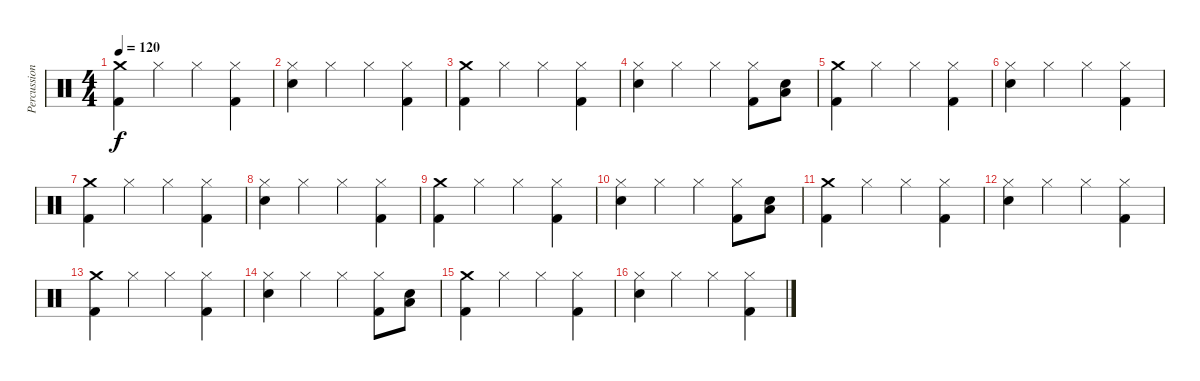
\track ("Percussion" "Percussion") {instrument percussion}
\staff {score}
\articulation defaults
\ts (4 4)
\tempo 120
\clef neutral
\ks aminor
("Crash medium (hit)" "Kick (hit) 2").4{dy f} "Hi-Hat (closed)".4 "Hi-Hat (closed)".4 ("Hi-Hat (closed)" "Kick (hit) 2").4 |
("Hi-Hat (closed)" "Snare (hit) 2").4 "Hi-Hat (closed)".4 "Hi-Hat (closed)".4 ("Hi-Hat (closed)" "Kick (hit) 2").4 |
\ks c
("Crash medium (hit)" "Kick (hit) 2").4 "Hi-Hat (closed)".4 "Hi-Hat (closed)".4 ("Hi-Hat (closed)" "Kick (hit) 2").4 |
("Hi-Hat (closed)" "Snare (hit) 2").4 "Hi-Hat (closed)".4 "Hi-Hat (closed)".4 ("Hi-Hat (closed)" "Kick (hit) 2").8 ("Low Tom (hit)" "Electric Snare (hit)").8 |
("Crash medium (hit)" "Kick (hit) 2").4 "Hi-Hat (closed)".4 "Hi-Hat (closed)".4 ("Hi-Hat (closed)" "Kick (hit) 2").4 |
\ks aminor
("Hi-Hat (closed)" "Snare (hit) 2").4 "Hi-Hat (closed)".4 "Hi-Hat (closed)".4 ("Hi-Hat (closed)" "Kick (hit) 2").4 |
("Crash medium (hit)" "Kick (hit) 2").4 "Hi-Hat (closed)".4 "Hi-Hat (closed)".4 ("Hi-Hat (closed)" "Kick (hit) 2").4 |
\ks c
("Hi-Hat (closed)" "Snare (hit) 2").4 "Hi-Hat (closed)".4 "Hi-Hat (closed)".4 ("Hi-Hat (closed)" "Kick (hit) 2").4 |
("Crash medium (hit)" "Kick (hit) 2").4 "Hi-Hat (closed)".4 "Hi-Hat (closed)".4 ("Hi-Hat (closed)" "Kick (hit) 2").4 |
("Hi-Hat (closed)" "Snare (hit) 2").4 "Hi-Hat (closed)".4 "Hi-Hat (closed)".4 ("Hi-Hat (closed)" "Kick (hit) 2").8 ("Low Tom (hit)" "Electric Snare (hit)").8 |
\ks aminor
("Crash medium (hit)" "Kick (hit) 2").4 "Hi-Hat (closed)".4 "Hi-Hat (closed)".4 ("Hi-Hat (closed)" "Kick (hit) 2").4 |
("Hi-Hat (closed)" "Snare (hit) 2").4 "Hi-Hat (closed)".4 "Hi-Hat (closed)".4 ("Hi-Hat (closed)" "Kick (hit) 2").4 |
\ks c
("Crash medium (hit)" "Kick (hit) 2").4 "Hi-Hat (closed)".4 "Hi-Hat (closed)".4 ("Hi-Hat (closed)" "Kick (hit) 2").4 |
("Hi-Hat (closed)" "Snare (hit) 2").4 "Hi-Hat (closed)".4 "Hi-Hat (closed)".4 ("Hi-Hat (closed)" "Kick (hit) 2").8 ("Low Tom (hit)" "Electric Snare (hit)").8 |
\ks aminor
("Crash medium (hit)" "Kick (hit) 2").4 "Hi-Hat (closed)".4 "Hi-Hat (closed)".4 ("Hi-Hat (closed)" "Kick (hit) 2").4 |
("Hi-Hat (closed)" "Snare (hit) 2").4 "Hi-Hat (closed)".4 "Hi-Hat (closed)".4 ("Hi-Hat (closed)" "Kick (hit) 2").4
